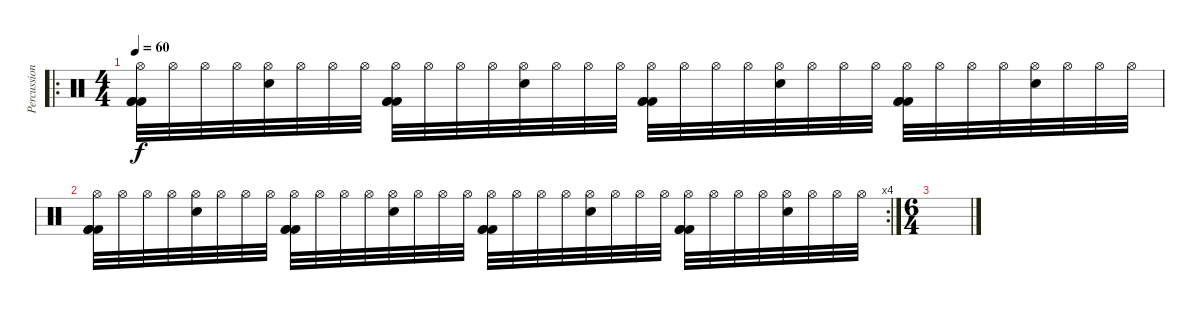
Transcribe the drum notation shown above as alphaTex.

\track ("Percussion" "Percussion") {instrument percussion}
\staff {score}
\articulation defaults
\ro
\ts (4 4)
\tempo 60
\clef neutral
\ks c
("Hi-Hat (open)" "Kick (hit) 2" "Kick (hit) 2" "Kick (hit) 2").32{dy f} "Hi-Hat (open)".32 "Hi-Hat (open)".32 "Hi-Hat (open)".32 ("Hi-Hat (open)" "Snare (hit) 2").32 "Hi-Hat (open)".32 "Hi-Hat (open)".32 "Hi-Hat (open)".32 ("Hi-Hat (open)" "Kick (hit) 2" "Kick (hit) 2" "Kick (hit) 2").32 "Hi-Hat (open)".32 "Hi-Hat (open)".32 "Hi-Hat (open)".32 ("Hi-Hat (open)" "Snare (hit) 2").32 "Hi-Hat (open)".32 "Hi-Hat (open)".32 "Hi-Hat (open)".32 ("Hi-Hat (open)" "Kick (hit) 2" "Kick (hit) 2" "Kick (hit) 2").32 "Hi-Hat (open)".32 "Hi-Hat (open)".32 "Hi-Hat (open)".32 ("Hi-Hat (open)" "Snare (hit) 2").32 "Hi-Hat (open)".32 "Hi-Hat (open)".32 "Hi-Hat (open)".32 ("Hi-Hat (open)" "Kick (hit) 2" "Kick (hit) 2" "Kick (hit) 2").32 "Hi-Hat (open)".32 "Hi-Hat (open)".32 "Hi-Hat (open)".32 ("Hi-Hat (open)" "Snare (hit) 2").32 "Hi-Hat (open)".32 "Hi-Hat (open)".32 "Hi-Hat (open)".32 |
\rc 4
("Hi-Hat (open)" "Kick (hit) 2" "Kick (hit) 2" "Kick (hit) 2").32 "Hi-Hat (open)".32 "Hi-Hat (open)".32 "Hi-Hat (open)".32 ("Hi-Hat (open)" "Snare (hit) 2").32 "Hi-Hat (open)".32 "Hi-Hat (open)".32 "Hi-Hat (open)".32 ("Hi-Hat (open)" "Kick (hit) 2" "Kick (hit) 2" "Kick (hit) 2").32 "Hi-Hat (open)".32 "Hi-Hat (open)".32 "Hi-Hat (open)".32 ("Hi-Hat (open)" "Snare (hit) 2").32 "Hi-Hat (open)".32 "Hi-Hat (open)".32 "Hi-Hat (open)".32 ("Hi-Hat (open)" "Kick (hit) 2" "Kick (hit) 2" "Kick (hit) 2").32 "Hi-Hat (open)".32 "Hi-Hat (open)".32 "Hi-Hat (open)".32 ("Hi-Hat (open)" "Snare (hit) 2").32 "Hi-Hat (open)".32 "Hi-Hat (open)".32 "Hi-Hat (open)".32 ("Hi-Hat (open)" "Kick (hit) 2" "Kick (hit) 2" "Kick (hit) 2").32 "Hi-Hat (open)".32 "Hi-Hat (open)".32 "Hi-Hat (open)".32 ("Hi-Hat (open)" "Snare (hit) 2").32 "Hi-Hat (open)".32 "Hi-Hat (open)".32 "Hi-Hat (open)".32 |
\ts (6 4)
